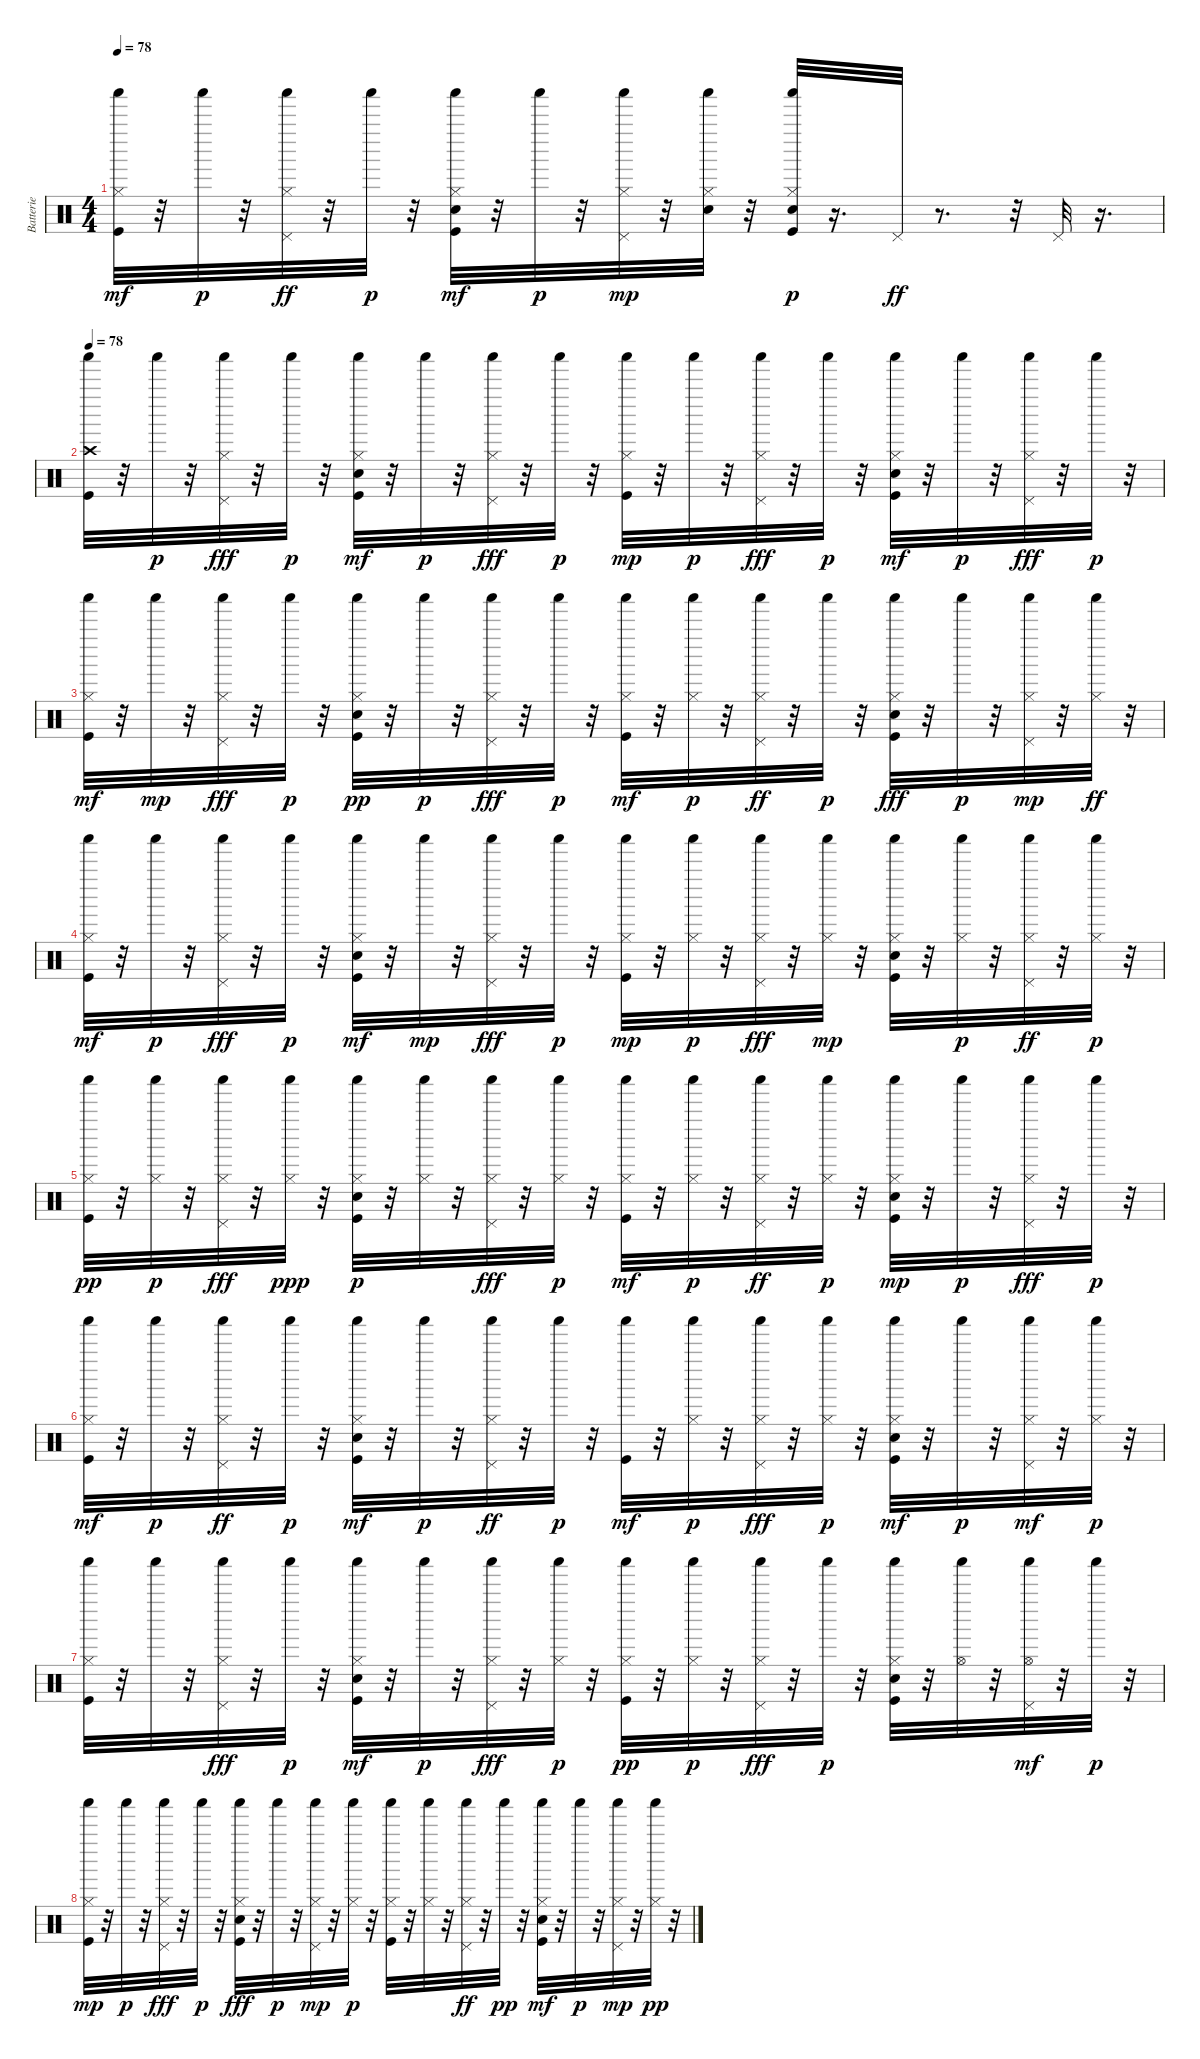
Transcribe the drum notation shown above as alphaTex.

\track ("Batterie" "Batterie") {instrument percussion}
\staff {score}
\articulation defaults
\ts (4 4)
\tempo 78
\clef neutral
\ks c
("Kick (hit)" "Shaker (hit)" "Hi-Hat (closed)").32{dy mf} r.32 "Shaker (hit)".32{dy p} r.32 ("Pedal Hi-Hat (hit)" "Shaker (hit)" "Hi-Hat (closed)").32{dy ff} r.32 "Shaker (hit)".32{dy p} r.32 ("Shaker (hit)" "Kick (hit)" "Hi-Hat (closed)" "Electric Snare (hit)").32{dy mf} r.32 "Shaker (hit)".32{dy p} r.32 ("Pedal Hi-Hat (hit)" "Shaker (hit)" "Hi-Hat (closed)").32{dy mp} r.32 ("Shaker (hit)" "Hi-Hat (closed)" "Electric Snare (hit)").32 r.32 ("Shaker (hit)" "Kick (hit)" "Hi-Hat (closed)" "Electric Snare (hit)").32{dy p} r.16{d} "Pedal Hi-Hat (hit)".32{dy ff} r.8{d} r.32 "Pedal Hi-Hat (hit)".32 r.16{d} |
\tempo 78
("Shaker (hit)" "Kick (hit)" "Crash high (hit)").32 r.32 "Shaker (hit)".32{dy p} r.32 ("Pedal Hi-Hat (hit)" "Shaker (hit)" "Hi-Hat (closed)").32{dy fff} r.32 "Shaker (hit)".32{dy p} r.32 ("Shaker (hit)" "Kick (hit)" "Hi-Hat (closed)" "Electric Snare (hit)").32{dy mf} r.32 "Shaker (hit)".32{dy p} r.32 ("Pedal Hi-Hat (hit)" "Shaker (hit)" "Hi-Hat (closed)").32{dy fff} r.32 "Shaker (hit)".32{dy p} r.32 ("Shaker (hit)" "Kick (hit)" "Hi-Hat (closed)").32{dy mp} r.32 "Shaker (hit)".32{dy p} r.32 ("Pedal Hi-Hat (hit)" "Shaker (hit)" "Hi-Hat (closed)").32{dy fff} r.32 "Shaker (hit)".32{dy p} r.32 ("Shaker (hit)" "Kick (hit)" "Hi-Hat (closed)" "Electric Snare (hit)").32{dy mf} r.32 "Shaker (hit)".32{dy p} r.32 ("Pedal Hi-Hat (hit)" "Shaker (hit)" "Hi-Hat (closed)").32{dy fff} r.32 "Shaker (hit)".32{dy p} r.32 |
("Hi-Hat (closed)" "Shaker (hit)" "Kick (hit)").32{dy mf} r.32 "Shaker (hit)".32{dy mp} r.32 ("Pedal Hi-Hat (hit)" "Shaker (hit)" "Hi-Hat (closed)").32{dy fff} r.32 "Shaker (hit)".32{dy p} r.32 ("Kick (hit)" "Hi-Hat (closed)" "Electric Snare (hit)" "Shaker (hit)").32{dy pp} r.32 "Shaker (hit)".32{dy p} r.32 ("Pedal Hi-Hat (hit)" "Shaker (hit)" "Hi-Hat (closed)").32{dy fff} r.32 "Shaker (hit)".32{dy p} r.32 ("Kick (hit)" "Shaker (hit)" "Hi-Hat (closed)").32{dy mf} r.32 ("Hi-Hat (closed)" "Shaker (hit)").32{dy p} r.32 ("Shaker (hit)" "Pedal Hi-Hat (hit)" "Hi-Hat (closed)").32{dy ff} r.32 "Shaker (hit)".32{dy p} r.32 ("Electric Snare (hit)" "Shaker (hit)" "Kick (hit)" "Hi-Hat (closed)").32{dy fff} r.32 "Shaker (hit)".32{dy p} r.32 ("Pedal Hi-Hat (hit)" "Shaker (hit)" "Hi-Hat (closed)").32{dy mp} r.32 ("Shaker (hit)" "Hi-Hat (closed)").32{dy ff} r.32 |
("Kick (hit)" "Shaker (hit)" "Hi-Hat (closed)").32{dy mf} r.32 "Shaker (hit)".32{dy p} r.32 ("Shaker (hit)" "Pedal Hi-Hat (hit)" "Hi-Hat (closed)").32{dy fff} r.32 "Shaker (hit)".32{dy p} r.32 ("Shaker (hit)" "Kick (hit)" "Hi-Hat (closed)" "Electric Snare (hit)").32{dy mf} r.32 "Shaker (hit)".32{dy mp} r.32 ("Hi-Hat (closed)" "Pedal Hi-Hat (hit)" "Shaker (hit)").32{dy fff} r.32 "Shaker (hit)".32{dy p} r.32 ("Kick (hit)" "Shaker (hit)" "Hi-Hat (closed)").32{dy mp} r.32 ("Hi-Hat (closed)" "Shaker (hit)").32{dy p} r.32 ("Shaker (hit)" "Hi-Hat (closed)" "Pedal Hi-Hat (hit)").32{dy fff} r.32 ("Shaker (hit)" "Hi-Hat (closed)").32{dy mp} r.32 ("Kick (hit)" "Shaker (hit)" "Hi-Hat (closed)" "Electric Snare (hit)").32 r.32 ("Hi-Hat (closed)" "Shaker (hit)").32{dy p} r.32 ("Shaker (hit)" "Hi-Hat (closed)" "Pedal Hi-Hat (hit)").32{dy ff} r.32 ("Hi-Hat (closed)" "Shaker (hit)").32{dy p} r.32 |
("Kick (hit)" "Shaker (hit)" "Hi-Hat (closed)").32{dy pp} r.32 ("Hi-Hat (closed)" "Shaker (hit)").32{dy p} r.32 ("Hi-Hat (closed)" "Pedal Hi-Hat (hit)" "Shaker (hit)").32{dy fff} r.32 ("Hi-Hat (closed)" "Shaker (hit)").32{dy ppp} r.32 ("Electric Snare (hit)" "Kick (hit)" "Shaker (hit)" "Hi-Hat (closed)").32{dy p} r.32 ("Hi-Hat (closed)" "Shaker (hit)").32 r.32 ("Pedal Hi-Hat (hit)" "Shaker (hit)" "Hi-Hat (closed)").32{dy fff} r.32 ("Hi-Hat (closed)" "Shaker (hit)").32{dy p} r.32 ("Shaker (hit)" "Kick (hit)" "Hi-Hat (closed)").32{dy mf} r.32 ("Shaker (hit)" "Hi-Hat (closed)").32{dy p} r.32 ("Hi-Hat (closed)" "Pedal Hi-Hat (hit)" "Shaker (hit)").32{dy ff} r.32 ("Hi-Hat (closed)" "Shaker (hit)").32{dy p} r.32 ("Hi-Hat (closed)" "Shaker (hit)" "Kick (hit)" "Electric Snare (hit)").32{dy mp} r.32 "Shaker (hit)".32{dy p} r.32 ("Pedal Hi-Hat (hit)" "Shaker (hit)" "Hi-Hat (closed)").32{dy fff} r.32 "Shaker (hit)".32{dy p} r.32 |
("Kick (hit)" "Shaker (hit)" "Hi-Hat (closed)").32{dy mf} r.32 "Shaker (hit)".32{dy p} r.32 ("Hi-Hat (closed)" "Pedal Hi-Hat (hit)" "Shaker (hit)").32{dy ff} r.32 "Shaker (hit)".32{dy p} r.32 ("Kick (hit)" "Shaker (hit)" "Hi-Hat (closed)" "Electric Snare (hit)").32{dy mf} r.32 "Shaker (hit)".32{dy p} r.32 ("Pedal Hi-Hat (hit)" "Shaker (hit)" "Hi-Hat (closed)").32{dy ff} r.32 "Shaker (hit)".32{dy p} r.32 ("Shaker (hit)" "Kick (hit)").32{dy mf} r.32 ("Hi-Hat (closed)" "Shaker (hit)").32{dy p} r.32 ("Hi-Hat (closed)" "Shaker (hit)" "Pedal Hi-Hat (hit)").32{dy fff} r.32 ("Hi-Hat (closed)" "Shaker (hit)").32{dy p} r.32 ("Hi-Hat (closed)" "Kick (hit)" "Shaker (hit)" "Electric Snare (hit)").32{dy mf} r.32 "Shaker (hit)".32{dy p} r.32 ("Shaker (hit)" "Pedal Hi-Hat (hit)" "Hi-Hat (closed)").32{dy mf} r.32 ("Hi-Hat (closed)" "Shaker (hit)").32{dy p} r.32 |
("Hi-Hat (closed)" "Kick (hit)" "Shaker (hit)").32 r.32 "Shaker (hit)".32 r.32 ("Hi-Hat (closed)" "Shaker (hit)" "Pedal Hi-Hat (hit)").32{dy fff} r.32 "Shaker (hit)".32{dy p} r.32 ("Hi-Hat (closed)" "Shaker (hit)" "Kick (hit)" "Electric Snare (hit)").32{dy mf} r.32 "Shaker (hit)".32{dy p} r.32 ("Hi-Hat (closed)" "Pedal Hi-Hat (hit)" "Shaker (hit)").32{dy fff} r.32 ("Hi-Hat (closed)" "Shaker (hit)").32{dy p} r.32 ("Hi-Hat (closed)" "Kick (hit)" "Shaker (hit)").32{dy pp} r.32 ("Hi-Hat (closed)" "Shaker (hit)").32{dy p} r.32 ("Shaker (hit)" "Pedal Hi-Hat (hit)" "Hi-Hat (closed)").32{dy fff} r.32 "Shaker (hit)".32{dy p} r.32 ("Electric Snare (hit)" "Hi-Hat (closed)" "Kick (hit)" "Shaker (hit)").32 r.32 ("Hi-Hat (open)" "Shaker (hit)").32 r.32 ("Pedal Hi-Hat (hit)" "Shaker (hit)" "Hi-Hat (open)").32{dy mf} r.32 "Shaker (hit)".32{dy p} r.32 |
("Shaker (hit)" "Kick (hit)" "Hi-Hat (closed)").32{dy mp} r.32 "Shaker (hit)".32{dy p} r.32 ("Pedal Hi-Hat (hit)" "Shaker (hit)" "Hi-Hat (closed)").32{dy fff} r.32 "Shaker (hit)".32{dy p} r.32 ("Electric Snare (hit)" "Shaker (hit)" "Kick (hit)" "Hi-Hat (closed)").32{dy fff} r.32 "Shaker (hit)".32{dy p} r.32 ("Pedal Hi-Hat (hit)" "Shaker (hit)" "Hi-Hat (closed)").32{dy mp} r.32 ("Hi-Hat (closed)" "Shaker (hit)").32{dy p} r.32 ("Kick (hit)" "Shaker (hit)" "Hi-Hat (closed)").32 r.32 ("Hi-Hat (closed)" "Shaker (hit)").32 r.32 ("Shaker (hit)" "Pedal Hi-Hat (hit)" "Hi-Hat (closed)").32{dy ff} r.32 "Shaker (hit)".32{dy pp} r.32 ("Shaker (hit)" "Hi-Hat (closed)" "Kick (hit)" "Electric Snare (hit)").32{dy mf} r.32 "Shaker (hit)".32{dy p} r.32 ("Pedal Hi-Hat (hit)" "Shaker (hit)" "Hi-Hat (closed)").32{dy mp} r.32 ("Hi-Hat (closed)" "Shaker (hit)").32{dy pp} r.32
